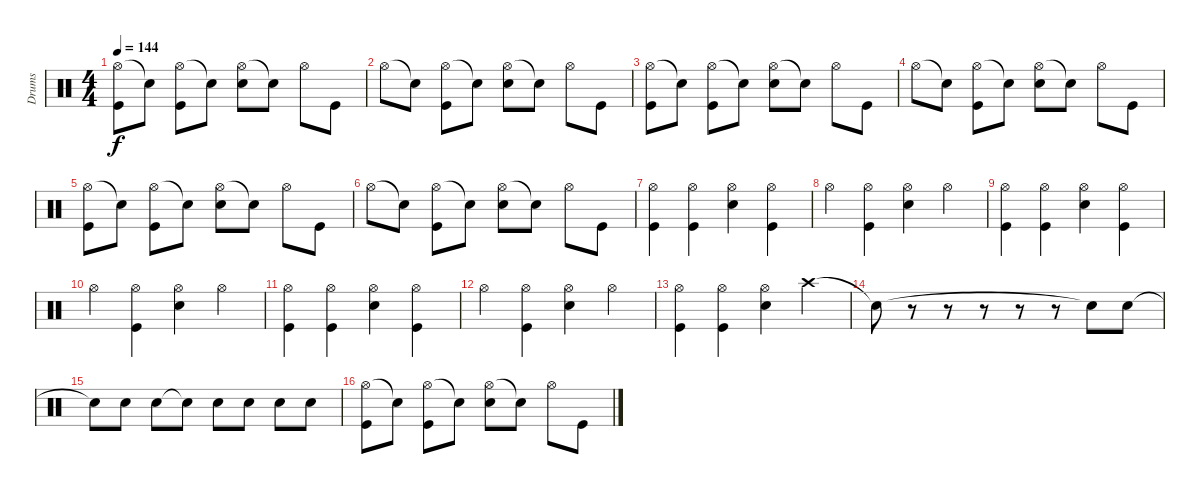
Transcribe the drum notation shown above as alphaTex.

\track ("Drums               " "Drums     ") {instrument percussion}
\staff {score}
\articulation defaults
\ts (4 4)
\tempo 144
\clef neutral
\ks c
("Hi-Hat (open)" "Kick (hit)").8{dy f} "Snare (hit)"{t}.8 ("Hi-Hat (open)" "Kick (hit)").8 "Snare (hit)"{t}.8 ("Hi-Hat (open)" "Snare (hit) 2").8 "Snare (hit)"{t}.8 "Hi-Hat (open)".8 "Kick (hit)".8 |
"Hi-Hat (open)".8 "Snare (hit)"{t}.8 ("Hi-Hat (open)" "Kick (hit)").8 "Snare (hit)"{t}.8 ("Hi-Hat (open)" "Snare (hit) 2").8 "Snare (hit)"{t}.8 "Hi-Hat (open)".8 "Kick (hit)".8 |
("Hi-Hat (open)" "Kick (hit)").8 "Snare (hit)"{t}.8 ("Hi-Hat (open)" "Kick (hit)").8 "Snare (hit)"{t}.8 ("Hi-Hat (open)" "Snare (hit) 2").8 "Snare (hit)"{t}.8 "Hi-Hat (open)".8 "Kick (hit)".8 |
"Hi-Hat (open)".8 "Snare (hit)"{t}.8 ("Hi-Hat (open)" "Kick (hit)").8 "Snare (hit)"{t}.8 ("Hi-Hat (open)" "Snare (hit) 2").8 "Snare (hit)"{t}.8 "Hi-Hat (open)".8 "Kick (hit)".8 |
("Hi-Hat (open)" "Kick (hit)").8 "Snare (hit)"{t}.8 ("Hi-Hat (open)" "Kick (hit)").8 "Snare (hit)"{t}.8 ("Hi-Hat (open)" "Snare (hit) 2").8 "Snare (hit)"{t}.8 "Hi-Hat (open)".8 "Kick (hit)".8 |
"Hi-Hat (open)".8 "Snare (hit)"{t}.8 ("Hi-Hat (open)" "Kick (hit)").8 "Snare (hit)"{t}.8 ("Hi-Hat (open)" "Snare (hit) 2").8 "Snare (hit)"{t}.8 "Hi-Hat (open)".8 "Kick (hit)".8 |
("Hi-Hat (open)" "Kick (hit)").4 ("Hi-Hat (open)" "Kick (hit)").4 ("Hi-Hat (open)" "Snare (hit) 2").4 ("Hi-Hat (open)" "Kick (hit)").4 |
"Hi-Hat (open)".4 ("Hi-Hat (open)" "Kick (hit)").4 ("Hi-Hat (open)" "Snare (hit) 2").4 "Hi-Hat (open)".4 |
("Hi-Hat (open)" "Kick (hit)").4 ("Hi-Hat (open)" "Kick (hit)").4 ("Hi-Hat (open)" "Snare (hit) 2").4 ("Hi-Hat (open)" "Kick (hit)").4 |
"Hi-Hat (open)".4 ("Hi-Hat (open)" "Kick (hit)").4 ("Hi-Hat (open)" "Snare (hit) 2").4 "Hi-Hat (open)".4 |
("Hi-Hat (open)" "Kick (hit)").4 ("Hi-Hat (open)" "Kick (hit)").4 ("Hi-Hat (open)" "Snare (hit) 2").4 ("Hi-Hat (open)" "Kick (hit)").4 |
"Hi-Hat (open)".4 ("Hi-Hat (open)" "Kick (hit)").4 ("Hi-Hat (open)" "Snare (hit) 2").4 "Hi-Hat (open)".4 |
("Hi-Hat (open)" "Kick (hit)").4 ("Hi-Hat (open)" "Kick (hit)").4 ("Hi-Hat (open)" "Snare (hit) 2").4 "Crash high (hit)".4 |
"Snare (hit)"{t}.8 r.8 r.8 r.8 r.8 r.8 "Snare (hit)"{t}.8 "Snare (hit) 2".8 |
"Snare (hit)"{t}.8 "Snare (hit) 2".8 "Snare (hit) 2".8 "Snare (hit)"{t}.8 "Snare (hit) 2".8 "Snare (hit) 2".8 "Snare (hit) 2".8 "Snare (hit) 2".8 |
("Hi-Hat (open)" "Kick (hit)").8 "Snare (hit)"{t}.8 ("Hi-Hat (open)" "Kick (hit)").8 "Snare (hit)"{t}.8 ("Hi-Hat (open)" "Snare (hit) 2").8 "Snare (hit)"{t}.8 "Hi-Hat (open)".8 "Kick (hit)".8
